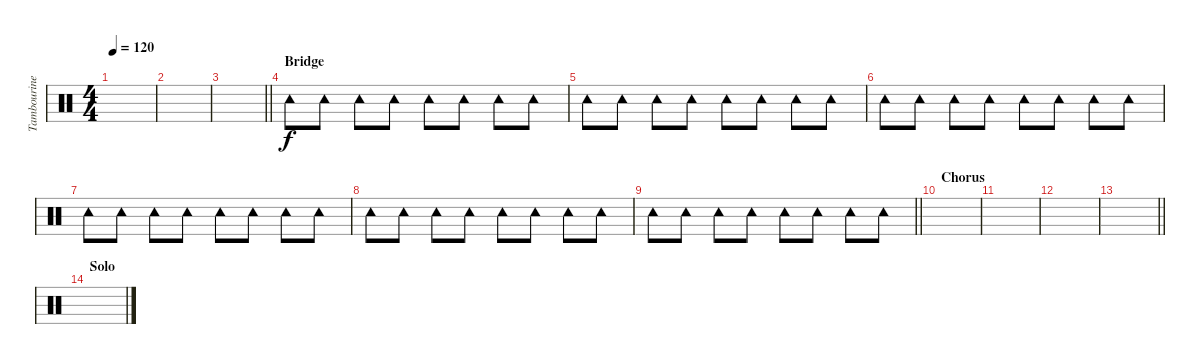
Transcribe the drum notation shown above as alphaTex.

\track ("Tambourine" "Tambourine") {instrument percussion}
\staff {score}
\articulation defaults
\ts (4 4)
\tempo 120
\clef neutral
\ks c
|
|
\barLineRight lightlight
|
\section ("" "Bridge")
"Tambourine (hit)".8 "Tambourine (hit)".8 "Tambourine (hit)".8 "Tambourine (hit)".8 "Tambourine (hit)".8 "Tambourine (hit)".8 "Tambourine (hit)".8 "Tambourine (hit)".8 |
"Tambourine (hit)".8 "Tambourine (hit)".8 "Tambourine (hit)".8 "Tambourine (hit)".8 "Tambourine (hit)".8 "Tambourine (hit)".8 "Tambourine (hit)".8 "Tambourine (hit)".8 |
"Tambourine (hit)".8 "Tambourine (hit)".8 "Tambourine (hit)".8 "Tambourine (hit)".8 "Tambourine (hit)".8 "Tambourine (hit)".8 "Tambourine (hit)".8 "Tambourine (hit)".8 |
"Tambourine (hit)".8 "Tambourine (hit)".8 "Tambourine (hit)".8 "Tambourine (hit)".8 "Tambourine (hit)".8 "Tambourine (hit)".8 "Tambourine (hit)".8 "Tambourine (hit)".8 |
"Tambourine (hit)".8 "Tambourine (hit)".8 "Tambourine (hit)".8 "Tambourine (hit)".8 "Tambourine (hit)".8 "Tambourine (hit)".8 "Tambourine (hit)".8 "Tambourine (hit)".8 |
\barLineRight lightlight "Tambourine (hit)".8 "Tambourine (hit)".8 "Tambourine (hit)".8 "Tambourine (hit)".8 "Tambourine (hit)".8 "Tambourine (hit)".8 "Tambourine (hit)".8 "Tambourine (hit)".8
|
\section ("" "Chorus")
|
|
|
\barLineRight lightlight
|
\section ("" "Solo")
